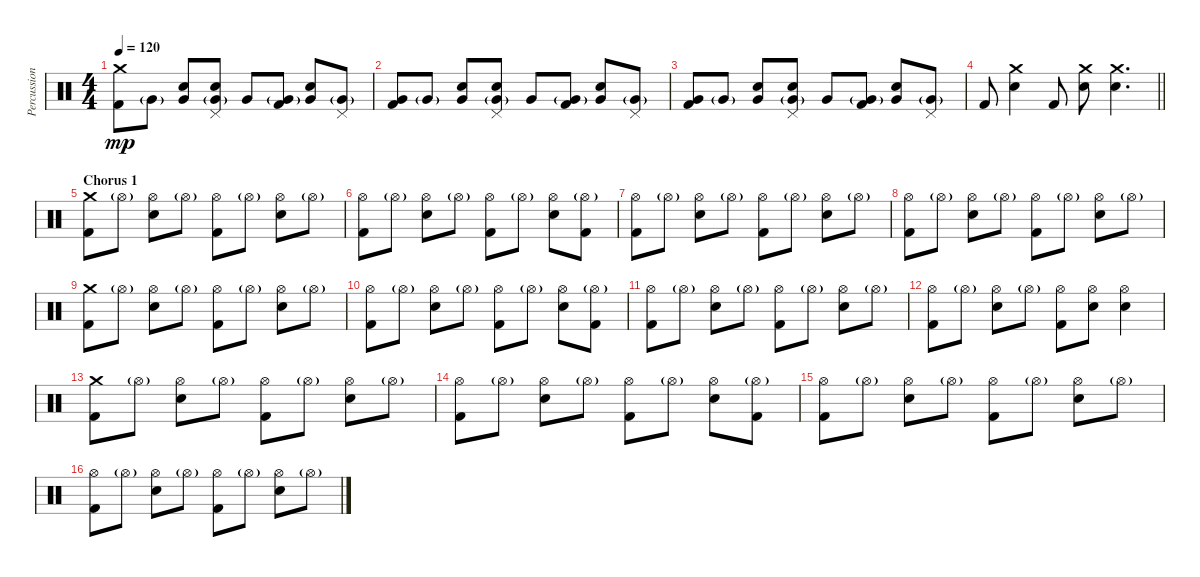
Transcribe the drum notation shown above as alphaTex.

\track ("Percussion" "Percussion") {instrument percussion}
\staff {score}
\articulation defaults
\ts (4 4)
\tempo 120
\clef neutral
\ks c
("Crash medium (hit)" "Kick (hit) 2").8{dy mp} "Very Low Tom (hit)"{g}.8 ("Very Low Tom (hit)" "Electric Snare (hit)").8 ("Very Low Tom (hit)"{g} "Pedal Hi-Hat (hit)" "Electric Snare (hit)").8 "Very Low Tom (hit)".8 ("Very Low Tom (hit)"{g} "Kick (hit) 2").8 ("Very Low Tom (hit)" "Electric Snare (hit)").8 ("Very Low Tom (hit)"{g} "Pedal Hi-Hat (hit)").8 |
("Very Low Tom (hit)" "Kick (hit) 2").8 "Very Low Tom (hit)"{g}.8 ("Very Low Tom (hit)" "Electric Snare (hit)").8 ("Very Low Tom (hit)"{g} "Pedal Hi-Hat (hit)" "Electric Snare (hit)").8 "Very Low Tom (hit)".8 ("Very Low Tom (hit)"{g} "Kick (hit) 2").8 ("Very Low Tom (hit)" "Electric Snare (hit)").8 ("Very Low Tom (hit)"{g} "Pedal Hi-Hat (hit)").8 |
("Very Low Tom (hit)" "Kick (hit) 2").8 "Very Low Tom (hit)"{g}.8 ("Very Low Tom (hit)" "Electric Snare (hit)").8 ("Very Low Tom (hit)"{g} "Pedal Hi-Hat (hit)" "Electric Snare (hit)").8 "Very Low Tom (hit)".8 ("Very Low Tom (hit)"{g} "Kick (hit) 2").8 ("Very Low Tom (hit)" "Electric Snare (hit)").8 ("Very Low Tom (hit)"{g} "Pedal Hi-Hat (hit)").8 |
\barLineRight lightlight "Kick (hit) 2".8
("Crash medium (hit)" "Electric Snare (hit)").4 "Kick (hit) 2".8 ("Crash medium (hit)" "Electric Snare (hit)").8 ("Crash medium (hit)" "Electric Snare (hit)").4{d} |
\section ("" "Chorus 1")
("Crash medium (hit)" "Kick (hit) 2").8 "Hi-Hat (open)"{g}.8 ("Hi-Hat (open)" "Electric Snare (hit)").8 "Hi-Hat (open)"{g}.8 ("Hi-Hat (open)" "Kick (hit) 2").8 "Hi-Hat (open)"{g}.8 ("Hi-Hat (open)" "Electric Snare (hit)").8 "Hi-Hat (open)"{g}.8 |
("Hi-Hat (open)" "Kick (hit) 2").8 "Hi-Hat (open)"{g}.8 ("Hi-Hat (open)" "Electric Snare (hit)").8 "Hi-Hat (open)"{g}.8 ("Hi-Hat (open)" "Kick (hit) 2").8 "Hi-Hat (open)"{g}.8 ("Hi-Hat (open)" "Electric Snare (hit)").8 ("Hi-Hat (open)"{g} "Kick (hit) 2").8 |
("Hi-Hat (open)" "Kick (hit) 2").8 "Hi-Hat (open)"{g}.8 ("Hi-Hat (open)" "Electric Snare (hit)").8 "Hi-Hat (open)"{g}.8 ("Hi-Hat (open)" "Kick (hit) 2").8 "Hi-Hat (open)"{g}.8 ("Hi-Hat (open)" "Electric Snare (hit)").8 "Hi-Hat (open)"{g}.8 |
("Hi-Hat (open)" "Kick (hit) 2").8 "Hi-Hat (open)"{g}.8 ("Hi-Hat (open)" "Electric Snare (hit)").8 "Hi-Hat (open)"{g}.8 ("Hi-Hat (open)" "Kick (hit) 2").8 "Hi-Hat (open)"{g}.8 ("Hi-Hat (open)" "Electric Snare (hit)").8 "Hi-Hat (open)"{g}.8 |
("Crash medium (hit)" "Kick (hit) 2").8 "Hi-Hat (open)"{g}.8 ("Hi-Hat (open)" "Electric Snare (hit)").8 "Hi-Hat (open)"{g}.8 ("Hi-Hat (open)" "Kick (hit) 2").8 "Hi-Hat (open)"{g}.8 ("Hi-Hat (open)" "Electric Snare (hit)").8 "Hi-Hat (open)"{g}.8 |
("Hi-Hat (open)" "Kick (hit) 2").8 "Hi-Hat (open)"{g}.8 ("Hi-Hat (open)" "Electric Snare (hit)").8 "Hi-Hat (open)"{g}.8 ("Hi-Hat (open)" "Kick (hit) 2").8 "Hi-Hat (open)"{g}.8 ("Hi-Hat (open)" "Electric Snare (hit)").8 ("Hi-Hat (open)"{g} "Kick (hit) 2").8 |
("Hi-Hat (open)" "Kick (hit) 2").8 "Hi-Hat (open)"{g}.8 ("Hi-Hat (open)" "Electric Snare (hit)").8 "Hi-Hat (open)"{g}.8 ("Hi-Hat (open)" "Kick (hit) 2").8 "Hi-Hat (open)"{g}.8 ("Hi-Hat (open)" "Electric Snare (hit)").8 "Hi-Hat (open)"{g}.8 |
("Hi-Hat (open)" "Kick (hit) 2").8 "Hi-Hat (open)"{g}.8 ("Hi-Hat (open)" "Electric Snare (hit)").8 "Hi-Hat (open)"{g}.8 ("Hi-Hat (open)" "Kick (hit) 2").8 ("Hi-Hat (open)" "Electric Snare (hit)").8 ("Hi-Hat (open)" "Electric Snare (hit)").4 |
("Crash medium (hit)" "Kick (hit) 2").8 "Hi-Hat (open)"{g}.8 ("Hi-Hat (open)" "Electric Snare (hit)").8 "Hi-Hat (open)"{g}.8 ("Hi-Hat (open)" "Kick (hit) 2").8 "Hi-Hat (open)"{g}.8 ("Hi-Hat (open)" "Electric Snare (hit)").8 "Hi-Hat (open)"{g}.8 |
("Hi-Hat (open)" "Kick (hit) 2").8 "Hi-Hat (open)"{g}.8 ("Hi-Hat (open)" "Electric Snare (hit)").8 "Hi-Hat (open)"{g}.8 ("Hi-Hat (open)" "Kick (hit) 2").8 "Hi-Hat (open)"{g}.8 ("Hi-Hat (open)" "Electric Snare (hit)").8 ("Hi-Hat (open)"{g} "Kick (hit) 2").8 |
("Hi-Hat (open)" "Kick (hit) 2").8 "Hi-Hat (open)"{g}.8 ("Hi-Hat (open)" "Electric Snare (hit)").8 "Hi-Hat (open)"{g}.8 ("Hi-Hat (open)" "Kick (hit) 2").8 "Hi-Hat (open)"{g}.8 ("Hi-Hat (open)" "Electric Snare (hit)").8 "Hi-Hat (open)"{g}.8 |
("Hi-Hat (open)" "Kick (hit) 2").8 "Hi-Hat (open)"{g}.8 ("Hi-Hat (open)" "Electric Snare (hit)").8 "Hi-Hat (open)"{g}.8 ("Hi-Hat (open)" "Kick (hit) 2").8 "Hi-Hat (open)"{g}.8 ("Hi-Hat (open)" "Electric Snare (hit)").8 "Hi-Hat (open)"{g}.8
